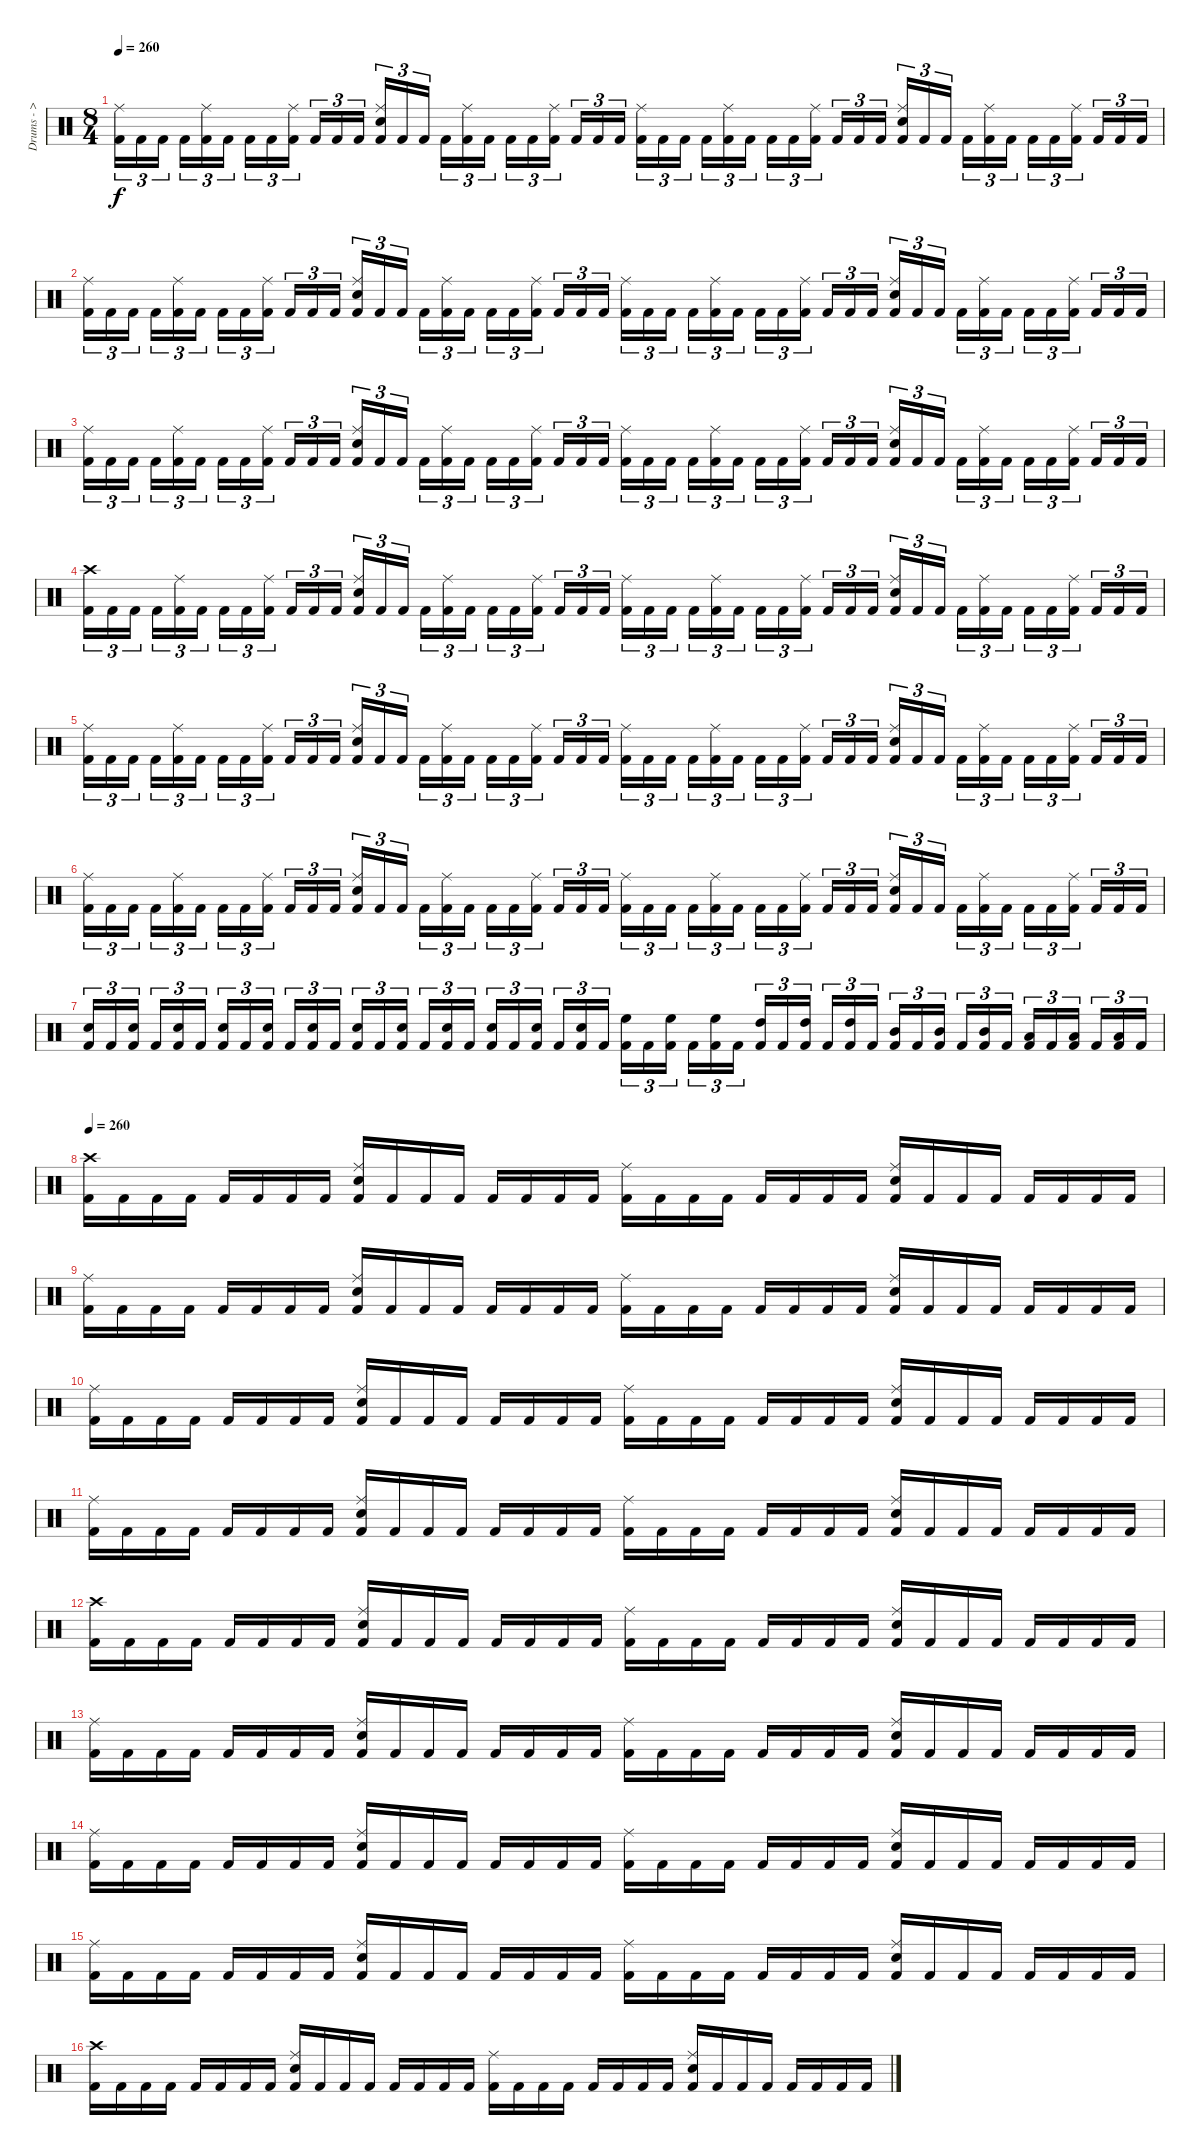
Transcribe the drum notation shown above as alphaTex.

\track ("Drums - > Nicholas" "Drums - > ") {instrument percussion}
\staff {score}
\articulation defaults
\ts (8 4)
\tempo 260
\clef neutral
\ks c
("Kick (hit) 2" "Ride (middle)").16{tu (3 2) dy f} "Kick (hit) 2".16{tu (3 2)} "Kick (hit) 2".16{tu (3 2)} "Kick (hit) 2".16{tu (3 2)} ("Kick (hit) 2" "Ride (middle)").16{tu (3 2)} "Kick (hit) 2".16{tu (3 2)} "Kick (hit) 2".16{tu (3 2)} "Kick (hit) 2".16{tu (3 2)} ("Kick (hit) 2" "Ride (middle)").16{tu (3 2)} "Kick (hit) 2".16{tu (3 2)} "Kick (hit) 2".16{tu (3 2)} "Kick (hit) 2".16{tu (3 2)} ("Kick (hit) 2" "Snare (hit) 2" "Ride (middle)").16{tu (3 2)} "Kick (hit) 2".16{tu (3 2)} "Kick (hit) 2".16{tu (3 2)} "Kick (hit) 2".16{tu (3 2)} ("Kick (hit) 2" "Ride (middle)").16{tu (3 2)} "Kick (hit) 2".16{tu (3 2)} "Kick (hit) 2".16{tu (3 2)} "Kick (hit) 2".16{tu (3 2)} ("Kick (hit) 2" "Ride (middle)").16{tu (3 2)} "Kick (hit) 2".16{tu (3 2)} "Kick (hit) 2".16{tu (3 2)} "Kick (hit) 2".16{tu (3 2)} ("Kick (hit) 2" "Ride (middle)").16{tu (3 2)} "Kick (hit) 2".16{tu (3 2)} "Kick (hit) 2".16{tu (3 2)} "Kick (hit) 2".16{tu (3 2)} ("Kick (hit) 2" "Ride (middle)").16{tu (3 2)} "Kick (hit) 2".16{tu (3 2)} "Kick (hit) 2".16{tu (3 2)} "Kick (hit) 2".16{tu (3 2)} ("Kick (hit) 2" "Ride (middle)").16{tu (3 2)} "Kick (hit) 2".16{tu (3 2)} "Kick (hit) 2".16{tu (3 2)} "Kick (hit) 2".16{tu (3 2)} ("Kick (hit) 2" "Snare (hit) 2" "Ride (middle)").16{tu (3 2)} "Kick (hit) 2".16{tu (3 2)} "Kick (hit) 2".16{tu (3 2)} "Kick (hit) 2".16{tu (3 2)} ("Kick (hit) 2" "Ride (middle)").16{tu (3 2)} "Kick (hit) 2".16{tu (3 2)} "Kick (hit) 2".16{tu (3 2)} "Kick (hit) 2".16{tu (3 2)} ("Kick (hit) 2" "Ride (middle)").16{tu (3 2)} "Kick (hit) 2".16{tu (3 2)} "Kick (hit) 2".16{tu (3 2)} "Kick (hit) 2".16{tu (3 2)} |
("Kick (hit) 2" "Ride (middle)").16{tu (3 2)} "Kick (hit) 2".16{tu (3 2)} "Kick (hit) 2".16{tu (3 2)} "Kick (hit) 2".16{tu (3 2)} ("Kick (hit) 2" "Ride (middle)").16{tu (3 2)} "Kick (hit) 2".16{tu (3 2)} "Kick (hit) 2".16{tu (3 2)} "Kick (hit) 2".16{tu (3 2)} ("Kick (hit) 2" "Ride (middle)").16{tu (3 2)} "Kick (hit) 2".16{tu (3 2)} "Kick (hit) 2".16{tu (3 2)} "Kick (hit) 2".16{tu (3 2)} ("Kick (hit) 2" "Snare (hit) 2" "Ride (middle)").16{tu (3 2)} "Kick (hit) 2".16{tu (3 2)} "Kick (hit) 2".16{tu (3 2)} "Kick (hit) 2".16{tu (3 2)} ("Kick (hit) 2" "Ride (middle)").16{tu (3 2)} "Kick (hit) 2".16{tu (3 2)} "Kick (hit) 2".16{tu (3 2)} "Kick (hit) 2".16{tu (3 2)} ("Kick (hit) 2" "Ride (middle)").16{tu (3 2)} "Kick (hit) 2".16{tu (3 2)} "Kick (hit) 2".16{tu (3 2)} "Kick (hit) 2".16{tu (3 2)} ("Kick (hit) 2" "Ride (middle)").16{tu (3 2)} "Kick (hit) 2".16{tu (3 2)} "Kick (hit) 2".16{tu (3 2)} "Kick (hit) 2".16{tu (3 2)} ("Kick (hit) 2" "Ride (middle)").16{tu (3 2)} "Kick (hit) 2".16{tu (3 2)} "Kick (hit) 2".16{tu (3 2)} "Kick (hit) 2".16{tu (3 2)} ("Kick (hit) 2" "Ride (middle)").16{tu (3 2)} "Kick (hit) 2".16{tu (3 2)} "Kick (hit) 2".16{tu (3 2)} "Kick (hit) 2".16{tu (3 2)} ("Kick (hit) 2" "Snare (hit) 2" "Ride (middle)").16{tu (3 2)} "Kick (hit) 2".16{tu (3 2)} "Kick (hit) 2".16{tu (3 2)} "Kick (hit) 2".16{tu (3 2)} ("Kick (hit) 2" "Ride (middle)").16{tu (3 2)} "Kick (hit) 2".16{tu (3 2)} "Kick (hit) 2".16{tu (3 2)} "Kick (hit) 2".16{tu (3 2)} ("Kick (hit) 2" "Ride (middle)").16{tu (3 2)} "Kick (hit) 2".16{tu (3 2)} "Kick (hit) 2".16{tu (3 2)} "Kick (hit) 2".16{tu (3 2)} |
("Kick (hit) 2" "Ride (middle)").16{tu (3 2)} "Kick (hit) 2".16{tu (3 2)} "Kick (hit) 2".16{tu (3 2)} "Kick (hit) 2".16{tu (3 2)} ("Kick (hit) 2" "Ride (middle)").16{tu (3 2)} "Kick (hit) 2".16{tu (3 2)} "Kick (hit) 2".16{tu (3 2)} "Kick (hit) 2".16{tu (3 2)} ("Kick (hit) 2" "Ride (middle)").16{tu (3 2)} "Kick (hit) 2".16{tu (3 2)} "Kick (hit) 2".16{tu (3 2)} "Kick (hit) 2".16{tu (3 2)} ("Kick (hit) 2" "Snare (hit) 2" "Ride (middle)").16{tu (3 2)} "Kick (hit) 2".16{tu (3 2)} "Kick (hit) 2".16{tu (3 2)} "Kick (hit) 2".16{tu (3 2)} ("Kick (hit) 2" "Ride (middle)").16{tu (3 2)} "Kick (hit) 2".16{tu (3 2)} "Kick (hit) 2".16{tu (3 2)} "Kick (hit) 2".16{tu (3 2)} ("Kick (hit) 2" "Ride (middle)").16{tu (3 2)} "Kick (hit) 2".16{tu (3 2)} "Kick (hit) 2".16{tu (3 2)} "Kick (hit) 2".16{tu (3 2)} ("Kick (hit) 2" "Ride (middle)").16{tu (3 2)} "Kick (hit) 2".16{tu (3 2)} "Kick (hit) 2".16{tu (3 2)} "Kick (hit) 2".16{tu (3 2)} ("Kick (hit) 2" "Ride (middle)").16{tu (3 2)} "Kick (hit) 2".16{tu (3 2)} "Kick (hit) 2".16{tu (3 2)} "Kick (hit) 2".16{tu (3 2)} ("Kick (hit) 2" "Ride (middle)").16{tu (3 2)} "Kick (hit) 2".16{tu (3 2)} "Kick (hit) 2".16{tu (3 2)} "Kick (hit) 2".16{tu (3 2)} ("Kick (hit) 2" "Snare (hit) 2" "Ride (middle)").16{tu (3 2)} "Kick (hit) 2".16{tu (3 2)} "Kick (hit) 2".16{tu (3 2)} "Kick (hit) 2".16{tu (3 2)} ("Kick (hit) 2" "Ride (middle)").16{tu (3 2)} "Kick (hit) 2".16{tu (3 2)} "Kick (hit) 2".16{tu (3 2)} "Kick (hit) 2".16{tu (3 2)} ("Kick (hit) 2" "Ride (middle)").16{tu (3 2)} "Kick (hit) 2".16{tu (3 2)} "Kick (hit) 2".16{tu (3 2)} "Kick (hit) 2".16{tu (3 2)} |
("Kick (hit) 2" "Crash high (hit)").16{tu (3 2)} "Kick (hit) 2".16{tu (3 2)} "Kick (hit) 2".16{tu (3 2)} "Kick (hit) 2".16{tu (3 2)} ("Kick (hit) 2" "Ride (middle)").16{tu (3 2)} "Kick (hit) 2".16{tu (3 2)} "Kick (hit) 2".16{tu (3 2)} "Kick (hit) 2".16{tu (3 2)} ("Kick (hit) 2" "Ride (middle)").16{tu (3 2)} "Kick (hit) 2".16{tu (3 2)} "Kick (hit) 2".16{tu (3 2)} "Kick (hit) 2".16{tu (3 2)} ("Kick (hit) 2" "Snare (hit) 2" "Ride (middle)").16{tu (3 2)} "Kick (hit) 2".16{tu (3 2)} "Kick (hit) 2".16{tu (3 2)} "Kick (hit) 2".16{tu (3 2)} ("Kick (hit) 2" "Ride (middle)").16{tu (3 2)} "Kick (hit) 2".16{tu (3 2)} "Kick (hit) 2".16{tu (3 2)} "Kick (hit) 2".16{tu (3 2)} ("Kick (hit) 2" "Ride (middle)").16{tu (3 2)} "Kick (hit) 2".16{tu (3 2)} "Kick (hit) 2".16{tu (3 2)} "Kick (hit) 2".16{tu (3 2)} ("Kick (hit) 2" "Ride (middle)").16{tu (3 2)} "Kick (hit) 2".16{tu (3 2)} "Kick (hit) 2".16{tu (3 2)} "Kick (hit) 2".16{tu (3 2)} ("Kick (hit) 2" "Ride (middle)").16{tu (3 2)} "Kick (hit) 2".16{tu (3 2)} "Kick (hit) 2".16{tu (3 2)} "Kick (hit) 2".16{tu (3 2)} ("Kick (hit) 2" "Ride (middle)").16{tu (3 2)} "Kick (hit) 2".16{tu (3 2)} "Kick (hit) 2".16{tu (3 2)} "Kick (hit) 2".16{tu (3 2)} ("Kick (hit) 2" "Snare (hit) 2" "Ride (middle)").16{tu (3 2)} "Kick (hit) 2".16{tu (3 2)} "Kick (hit) 2".16{tu (3 2)} "Kick (hit) 2".16{tu (3 2)} ("Kick (hit) 2" "Ride (middle)").16{tu (3 2)} "Kick (hit) 2".16{tu (3 2)} "Kick (hit) 2".16{tu (3 2)} "Kick (hit) 2".16{tu (3 2)} ("Kick (hit) 2" "Ride (middle)").16{tu (3 2)} "Kick (hit) 2".16{tu (3 2)} "Kick (hit) 2".16{tu (3 2)} "Kick (hit) 2".16{tu (3 2)} |
("Kick (hit) 2" "Ride (middle)").16{tu (3 2)} "Kick (hit) 2".16{tu (3 2)} "Kick (hit) 2".16{tu (3 2)} "Kick (hit) 2".16{tu (3 2)} ("Kick (hit) 2" "Ride (middle)").16{tu (3 2)} "Kick (hit) 2".16{tu (3 2)} "Kick (hit) 2".16{tu (3 2)} "Kick (hit) 2".16{tu (3 2)} ("Kick (hit) 2" "Ride (middle)").16{tu (3 2)} "Kick (hit) 2".16{tu (3 2)} "Kick (hit) 2".16{tu (3 2)} "Kick (hit) 2".16{tu (3 2)} ("Kick (hit) 2" "Snare (hit) 2" "Ride (middle)").16{tu (3 2)} "Kick (hit) 2".16{tu (3 2)} "Kick (hit) 2".16{tu (3 2)} "Kick (hit) 2".16{tu (3 2)} ("Kick (hit) 2" "Ride (middle)").16{tu (3 2)} "Kick (hit) 2".16{tu (3 2)} "Kick (hit) 2".16{tu (3 2)} "Kick (hit) 2".16{tu (3 2)} ("Kick (hit) 2" "Ride (middle)").16{tu (3 2)} "Kick (hit) 2".16{tu (3 2)} "Kick (hit) 2".16{tu (3 2)} "Kick (hit) 2".16{tu (3 2)} ("Kick (hit) 2" "Ride (middle)").16{tu (3 2)} "Kick (hit) 2".16{tu (3 2)} "Kick (hit) 2".16{tu (3 2)} "Kick (hit) 2".16{tu (3 2)} ("Kick (hit) 2" "Ride (middle)").16{tu (3 2)} "Kick (hit) 2".16{tu (3 2)} "Kick (hit) 2".16{tu (3 2)} "Kick (hit) 2".16{tu (3 2)} ("Kick (hit) 2" "Ride (middle)").16{tu (3 2)} "Kick (hit) 2".16{tu (3 2)} "Kick (hit) 2".16{tu (3 2)} "Kick (hit) 2".16{tu (3 2)} ("Kick (hit) 2" "Snare (hit) 2" "Ride (middle)").16{tu (3 2)} "Kick (hit) 2".16{tu (3 2)} "Kick (hit) 2".16{tu (3 2)} "Kick (hit) 2".16{tu (3 2)} ("Kick (hit) 2" "Ride (middle)").16{tu (3 2)} "Kick (hit) 2".16{tu (3 2)} "Kick (hit) 2".16{tu (3 2)} "Kick (hit) 2".16{tu (3 2)} ("Kick (hit) 2" "Ride (middle)").16{tu (3 2)} "Kick (hit) 2".16{tu (3 2)} "Kick (hit) 2".16{tu (3 2)} "Kick (hit) 2".16{tu (3 2)} |
("Kick (hit) 2" "Ride (middle)").16{tu (3 2)} "Kick (hit) 2".16{tu (3 2)} "Kick (hit) 2".16{tu (3 2)} "Kick (hit) 2".16{tu (3 2)} ("Kick (hit) 2" "Ride (middle)").16{tu (3 2)} "Kick (hit) 2".16{tu (3 2)} "Kick (hit) 2".16{tu (3 2)} "Kick (hit) 2".16{tu (3 2)} ("Kick (hit) 2" "Ride (middle)").16{tu (3 2)} "Kick (hit) 2".16{tu (3 2)} "Kick (hit) 2".16{tu (3 2)} "Kick (hit) 2".16{tu (3 2)} ("Kick (hit) 2" "Snare (hit) 2" "Ride (middle)").16{tu (3 2)} "Kick (hit) 2".16{tu (3 2)} "Kick (hit) 2".16{tu (3 2)} "Kick (hit) 2".16{tu (3 2)} ("Kick (hit) 2" "Ride (middle)").16{tu (3 2)} "Kick (hit) 2".16{tu (3 2)} "Kick (hit) 2".16{tu (3 2)} "Kick (hit) 2".16{tu (3 2)} ("Kick (hit) 2" "Ride (middle)").16{tu (3 2)} "Kick (hit) 2".16{tu (3 2)} "Kick (hit) 2".16{tu (3 2)} "Kick (hit) 2".16{tu (3 2)} ("Kick (hit) 2" "Ride (middle)").16{tu (3 2)} "Kick (hit) 2".16{tu (3 2)} "Kick (hit) 2".16{tu (3 2)} "Kick (hit) 2".16{tu (3 2)} ("Kick (hit) 2" "Ride (middle)").16{tu (3 2)} "Kick (hit) 2".16{tu (3 2)} "Kick (hit) 2".16{tu (3 2)} "Kick (hit) 2".16{tu (3 2)} ("Kick (hit) 2" "Ride (middle)").16{tu (3 2)} "Kick (hit) 2".16{tu (3 2)} "Kick (hit) 2".16{tu (3 2)} "Kick (hit) 2".16{tu (3 2)} ("Kick (hit) 2" "Snare (hit) 2" "Ride (middle)").16{tu (3 2)} "Kick (hit) 2".16{tu (3 2)} "Kick (hit) 2".16{tu (3 2)} "Kick (hit) 2".16{tu (3 2)} ("Kick (hit) 2" "Ride (middle)").16{tu (3 2)} "Kick (hit) 2".16{tu (3 2)} "Kick (hit) 2".16{tu (3 2)} "Kick (hit) 2".16{tu (3 2)} ("Kick (hit) 2" "Ride (middle)").16{tu (3 2)} "Kick (hit) 2".16{tu (3 2)} "Kick (hit) 2".16{tu (3 2)} "Kick (hit) 2".16{tu (3 2)} |
("Kick (hit) 2" "Snare (hit) 2").16{tu (3 2)} "Kick (hit) 2".16{tu (3 2)} ("Kick (hit) 2" "Snare (hit) 2").16{tu (3 2)} "Kick (hit) 2".16{tu (3 2)} ("Kick (hit) 2" "Snare (hit) 2").16{tu (3 2)} "Kick (hit) 2".16{tu (3 2)} ("Kick (hit) 2" "Snare (hit) 2").16{tu (3 2)} "Kick (hit) 2".16{tu (3 2)} ("Kick (hit) 2" "Snare (hit) 2").16{tu (3 2)} "Kick (hit) 2".16{tu (3 2)} ("Kick (hit) 2" "Snare (hit) 2").16{tu (3 2)} "Kick (hit) 2".16{tu (3 2)} ("Kick (hit) 2" "Snare (hit) 2").16{tu (3 2)} "Kick (hit) 2".16{tu (3 2)} ("Kick (hit) 2" "Snare (hit) 2").16{tu (3 2)} "Kick (hit) 2".16{tu (3 2)} ("Kick (hit) 2" "Snare (hit) 2").16{tu (3 2)} "Kick (hit) 2".16{tu (3 2)} ("Kick (hit) 2" "Snare (hit) 2").16{tu (3 2)} "Kick (hit) 2".16{tu (3 2)} ("Kick (hit) 2" "Snare (hit) 2").16{tu (3 2)} "Kick (hit) 2".16{tu (3 2)} ("Kick (hit) 2" "Snare (hit) 2").16{tu (3 2)} "Kick (hit) 2".16{tu (3 2)} ("Kick (hit) 2" "High Floor Tom (hit)").16{tu (3 2)} "Kick (hit) 2".16{tu (3 2)} ("Kick (hit) 2" "High Floor Tom (hit)").16{tu (3 2)} "Kick (hit) 2".16{tu (3 2)} ("Kick (hit) 2" "High Floor Tom (hit)").16{tu (3 2)} "Kick (hit) 2".16{tu (3 2)} ("Kick (hit) 2" "High Tom (hit)").16{tu (3 2)} "Kick (hit) 2".16{tu (3 2)} ("Kick (hit) 2" "High Tom (hit)").16{tu (3 2)} "Kick (hit) 2".16{tu (3 2)} ("Kick (hit) 2" "High Tom (hit)").16{tu (3 2)} "Kick (hit) 2".16{tu (3 2)} ("Kick (hit) 2" "Mid Tom (hit)").16{tu (3 2)} "Kick (hit) 2".16{tu (3 2)} ("Kick (hit) 2" "Mid Tom (hit)").16{tu (3 2)} "Kick (hit) 2".16{tu (3 2)} ("Kick (hit) 2" "Mid Tom (hit)").16{tu (3 2)} "Kick (hit) 2".16{tu (3 2)} ("Kick (hit) 2" "Low Tom (hit)").16{tu (3 2)} "Kick (hit) 2".16{tu (3 2)} ("Kick (hit) 2" "Low Tom (hit)").16{tu (3 2)} "Kick (hit) 2".16{tu (3 2)} ("Kick (hit) 2" "Low Tom (hit)").16{tu (3 2)} "Kick (hit) 2".16{tu (3 2)} |
\tempo 260
("Kick (hit) 2" "Crash high (hit)").16 "Kick (hit) 2".16 "Kick (hit) 2".16 "Kick (hit) 2".16 "Kick (hit) 2".16 "Kick (hit) 2".16 "Kick (hit) 2".16 "Kick (hit) 2".16 ("Kick (hit) 2" "Snare (hit) 2" "Ride (middle)").16 "Kick (hit) 2".16 "Kick (hit) 2".16 "Kick (hit) 2".16 "Kick (hit) 2".16 "Kick (hit) 2".16 "Kick (hit) 2".16 "Kick (hit) 2".16 ("Kick (hit) 2" "Ride (middle)").16 "Kick (hit) 2".16 "Kick (hit) 2".16 "Kick (hit) 2".16 "Kick (hit) 2".16 "Kick (hit) 2".16 "Kick (hit) 2".16 "Kick (hit) 2".16 ("Kick (hit) 2" "Snare (hit) 2" "Ride (middle)").16 "Kick (hit) 2".16 "Kick (hit) 2".16 "Kick (hit) 2".16 "Kick (hit) 2".16 "Kick (hit) 2".16 "Kick (hit) 2".16 "Kick (hit) 2".16 |
("Kick (hit) 2" "Ride (middle)").16 "Kick (hit) 2".16 "Kick (hit) 2".16 "Kick (hit) 2".16 "Kick (hit) 2".16 "Kick (hit) 2".16 "Kick (hit) 2".16 "Kick (hit) 2".16 ("Kick (hit) 2" "Snare (hit) 2" "Ride (middle)").16 "Kick (hit) 2".16 "Kick (hit) 2".16 "Kick (hit) 2".16 "Kick (hit) 2".16 "Kick (hit) 2".16 "Kick (hit) 2".16 "Kick (hit) 2".16 ("Kick (hit) 2" "Ride (middle)").16 "Kick (hit) 2".16 "Kick (hit) 2".16 "Kick (hit) 2".16 "Kick (hit) 2".16 "Kick (hit) 2".16 "Kick (hit) 2".16 "Kick (hit) 2".16 ("Kick (hit) 2" "Snare (hit) 2" "Ride (middle)").16 "Kick (hit) 2".16 "Kick (hit) 2".16 "Kick (hit) 2".16 "Kick (hit) 2".16 "Kick (hit) 2".16 "Kick (hit) 2".16 "Kick (hit) 2".16 |
("Kick (hit) 2" "Ride (middle)").16 "Kick (hit) 2".16 "Kick (hit) 2".16 "Kick (hit) 2".16 "Kick (hit) 2".16 "Kick (hit) 2".16 "Kick (hit) 2".16 "Kick (hit) 2".16 ("Kick (hit) 2" "Snare (hit) 2" "Ride (middle)").16 "Kick (hit) 2".16 "Kick (hit) 2".16 "Kick (hit) 2".16 "Kick (hit) 2".16 "Kick (hit) 2".16 "Kick (hit) 2".16 "Kick (hit) 2".16 ("Kick (hit) 2" "Ride (middle)").16 "Kick (hit) 2".16 "Kick (hit) 2".16 "Kick (hit) 2".16 "Kick (hit) 2".16 "Kick (hit) 2".16 "Kick (hit) 2".16 "Kick (hit) 2".16 ("Kick (hit) 2" "Snare (hit) 2" "Ride (middle)").16 "Kick (hit) 2".16 "Kick (hit) 2".16 "Kick (hit) 2".16 "Kick (hit) 2".16 "Kick (hit) 2".16 "Kick (hit) 2".16 "Kick (hit) 2".16 |
("Kick (hit) 2" "Ride (middle)").16 "Kick (hit) 2".16 "Kick (hit) 2".16 "Kick (hit) 2".16 "Kick (hit) 2".16 "Kick (hit) 2".16 "Kick (hit) 2".16 "Kick (hit) 2".16 ("Kick (hit) 2" "Snare (hit) 2" "Ride (middle)").16 "Kick (hit) 2".16 "Kick (hit) 2".16 "Kick (hit) 2".16 "Kick (hit) 2".16 "Kick (hit) 2".16 "Kick (hit) 2".16 "Kick (hit) 2".16 ("Kick (hit) 2" "Ride (middle)").16 "Kick (hit) 2".16 "Kick (hit) 2".16 "Kick (hit) 2".16 "Kick (hit) 2".16 "Kick (hit) 2".16 "Kick (hit) 2".16 "Kick (hit) 2".16 ("Kick (hit) 2" "Snare (hit) 2" "Ride (middle)").16 "Kick (hit) 2".16 "Kick (hit) 2".16 "Kick (hit) 2".16 "Kick (hit) 2".16 "Kick (hit) 2".16 "Kick (hit) 2".16 "Kick (hit) 2".16 |
("Kick (hit) 2" "Crash high (hit)").16 "Kick (hit) 2".16 "Kick (hit) 2".16 "Kick (hit) 2".16 "Kick (hit) 2".16 "Kick (hit) 2".16 "Kick (hit) 2".16 "Kick (hit) 2".16 ("Kick (hit) 2" "Snare (hit) 2" "Ride (middle)").16 "Kick (hit) 2".16 "Kick (hit) 2".16 "Kick (hit) 2".16 "Kick (hit) 2".16 "Kick (hit) 2".16 "Kick (hit) 2".16 "Kick (hit) 2".16 ("Kick (hit) 2" "Ride (middle)").16 "Kick (hit) 2".16 "Kick (hit) 2".16 "Kick (hit) 2".16 "Kick (hit) 2".16 "Kick (hit) 2".16 "Kick (hit) 2".16 "Kick (hit) 2".16 ("Kick (hit) 2" "Snare (hit) 2" "Ride (middle)").16 "Kick (hit) 2".16 "Kick (hit) 2".16 "Kick (hit) 2".16 "Kick (hit) 2".16 "Kick (hit) 2".16 "Kick (hit) 2".16 "Kick (hit) 2".16 |
("Kick (hit) 2" "Ride (middle)").16 "Kick (hit) 2".16 "Kick (hit) 2".16 "Kick (hit) 2".16 "Kick (hit) 2".16 "Kick (hit) 2".16 "Kick (hit) 2".16 "Kick (hit) 2".16 ("Kick (hit) 2" "Snare (hit) 2" "Ride (middle)").16 "Kick (hit) 2".16 "Kick (hit) 2".16 "Kick (hit) 2".16 "Kick (hit) 2".16 "Kick (hit) 2".16 "Kick (hit) 2".16 "Kick (hit) 2".16 ("Kick (hit) 2" "Ride (middle)").16 "Kick (hit) 2".16 "Kick (hit) 2".16 "Kick (hit) 2".16 "Kick (hit) 2".16 "Kick (hit) 2".16 "Kick (hit) 2".16 "Kick (hit) 2".16 ("Kick (hit) 2" "Snare (hit) 2" "Ride (middle)").16 "Kick (hit) 2".16 "Kick (hit) 2".16 "Kick (hit) 2".16 "Kick (hit) 2".16 "Kick (hit) 2".16 "Kick (hit) 2".16 "Kick (hit) 2".16 |
("Kick (hit) 2" "Ride (middle)").16 "Kick (hit) 2".16 "Kick (hit) 2".16 "Kick (hit) 2".16 "Kick (hit) 2".16 "Kick (hit) 2".16 "Kick (hit) 2".16 "Kick (hit) 2".16 ("Kick (hit) 2" "Snare (hit) 2" "Ride (middle)").16 "Kick (hit) 2".16 "Kick (hit) 2".16 "Kick (hit) 2".16 "Kick (hit) 2".16 "Kick (hit) 2".16 "Kick (hit) 2".16 "Kick (hit) 2".16 ("Kick (hit) 2" "Ride (middle)").16 "Kick (hit) 2".16 "Kick (hit) 2".16 "Kick (hit) 2".16 "Kick (hit) 2".16 "Kick (hit) 2".16 "Kick (hit) 2".16 "Kick (hit) 2".16 ("Kick (hit) 2" "Snare (hit) 2" "Ride (middle)").16 "Kick (hit) 2".16 "Kick (hit) 2".16 "Kick (hit) 2".16 "Kick (hit) 2".16 "Kick (hit) 2".16 "Kick (hit) 2".16 "Kick (hit) 2".16 |
("Kick (hit) 2" "Ride (middle)").16 "Kick (hit) 2".16 "Kick (hit) 2".16 "Kick (hit) 2".16 "Kick (hit) 2".16 "Kick (hit) 2".16 "Kick (hit) 2".16 "Kick (hit) 2".16 ("Kick (hit) 2" "Snare (hit) 2" "Ride (middle)").16 "Kick (hit) 2".16 "Kick (hit) 2".16 "Kick (hit) 2".16 "Kick (hit) 2".16 "Kick (hit) 2".16 "Kick (hit) 2".16 "Kick (hit) 2".16 ("Kick (hit) 2" "Ride (middle)").16 "Kick (hit) 2".16 "Kick (hit) 2".16 "Kick (hit) 2".16 "Kick (hit) 2".16 "Kick (hit) 2".16 "Kick (hit) 2".16 "Kick (hit) 2".16 ("Kick (hit) 2" "Snare (hit) 2" "Ride (middle)").16 "Kick (hit) 2".16 "Kick (hit) 2".16 "Kick (hit) 2".16 "Kick (hit) 2".16 "Kick (hit) 2".16 "Kick (hit) 2".16 "Kick (hit) 2".16 |
("Kick (hit) 2" "Crash high (hit)").16 "Kick (hit) 2".16 "Kick (hit) 2".16 "Kick (hit) 2".16 "Kick (hit) 2".16 "Kick (hit) 2".16 "Kick (hit) 2".16 "Kick (hit) 2".16 ("Kick (hit) 2" "Snare (hit) 2" "Ride (middle)").16 "Kick (hit) 2".16 "Kick (hit) 2".16 "Kick (hit) 2".16 "Kick (hit) 2".16 "Kick (hit) 2".16 "Kick (hit) 2".16 "Kick (hit) 2".16 ("Kick (hit) 2" "Ride (middle)").16 "Kick (hit) 2".16 "Kick (hit) 2".16 "Kick (hit) 2".16 "Kick (hit) 2".16 "Kick (hit) 2".16 "Kick (hit) 2".16 "Kick (hit) 2".16 ("Kick (hit) 2" "Snare (hit) 2" "Ride (middle)").16 "Kick (hit) 2".16 "Kick (hit) 2".16 "Kick (hit) 2".16 "Kick (hit) 2".16 "Kick (hit) 2".16 "Kick (hit) 2".16 "Kick (hit) 2".16
